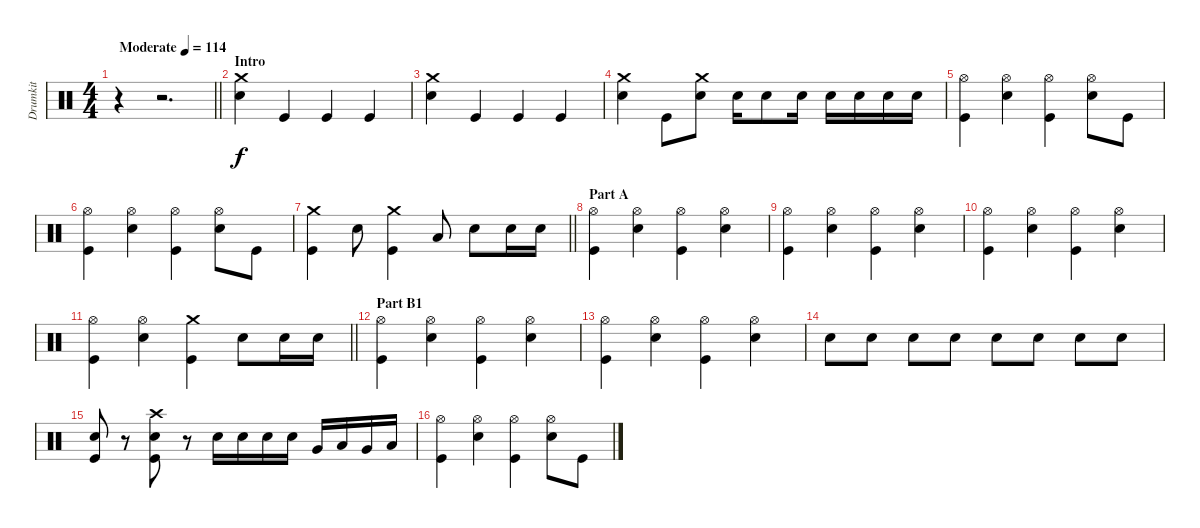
\track ("Drumkit" "Drumkit") {instrument percussion}
\staff {score}
\articulation defaults
\ts (4 4)
\tempo (114 "Moderate")
\clef neutral
\barLineRight lightlight
\ks c
r.4{dy f} r.2{d} |
\section ("" "Intro")
("Crash medium (hit)" "Snare (hit) 2").4 "Kick (hit)".4 "Kick (hit)".4 "Kick (hit)".4 |
("Crash medium (hit)" "Snare (hit) 2").4 "Kick (hit)".4 "Kick (hit)".4 "Kick (hit)".4 |
("Crash medium (hit)" "Snare (hit) 2").4 "Kick (hit)".8 ("Crash medium (hit)" "Snare (hit) 2").8 "Snare (hit) 2".16 "Snare (hit) 2".8 "Snare (hit) 2".16 "Snare (hit) 2".16 "Snare (hit) 2".16 "Snare (hit) 2".16 "Snare (hit) 2".16 |
("Hi-Hat (open)" "Kick (hit)").4 ("Hi-Hat (open)" "Snare (hit) 2").4 ("Hi-Hat (open)" "Kick (hit)").4 ("Hi-Hat (open)" "Snare (hit) 2").8 "Kick (hit)".8 |
("Hi-Hat (open)" "Kick (hit)").4 ("Hi-Hat (open)" "Snare (hit) 2").4 ("Hi-Hat (open)" "Kick (hit)").4 ("Hi-Hat (open)" "Snare (hit) 2").8 "Kick (hit)".8 |
\barLineRight lightlight
("Crash medium (hit)" "Kick (hit)").4 "Snare (hit) 2".8 ("Crash medium (hit)" "Kick (hit)").4 "Low Tom (hit)".8 "Snare (hit) 2".8 "Snare (hit) 2".16 "Snare (hit) 2".16 |
\section ("" "Part A")
("Hi-Hat (open)" "Kick (hit)").4 ("Hi-Hat (open)" "Snare (hit) 2").4 ("Hi-Hat (open)" "Kick (hit)").4 ("Hi-Hat (open)" "Snare (hit) 2").4 |
("Hi-Hat (open)" "Kick (hit)").4 ("Hi-Hat (open)" "Snare (hit) 2").4 ("Hi-Hat (open)" "Kick (hit)").4 ("Hi-Hat (open)" "Snare (hit) 2").4 |
("Hi-Hat (open)" "Kick (hit)").4 ("Hi-Hat (open)" "Snare (hit) 2").4 ("Hi-Hat (open)" "Kick (hit)").4 ("Hi-Hat (open)" "Snare (hit) 2").4 |
\barLineRight lightlight
("Hi-Hat (open)" "Kick (hit)").4 ("Hi-Hat (open)" "Snare (hit) 2").4 ("Crash medium (hit)" "Kick (hit)").4 "Snare (hit) 2".8 "Snare (hit) 2".16 "Snare (hit) 2".16 |
\section ("" "Part B1")
("Hi-Hat (open)" "Kick (hit)").4 ("Hi-Hat (open)" "Snare (hit) 2").4 ("Hi-Hat (open)" "Kick (hit)").4 ("Hi-Hat (open)" "Snare (hit) 2").4 |
("Hi-Hat (open)" "Kick (hit)").4 ("Hi-Hat (open)" "Snare (hit) 2").4 ("Hi-Hat (open)" "Kick (hit)").4 ("Hi-Hat (open)" "Snare (hit) 2").4 |
"Snare (hit) 2".8 "Snare (hit) 2".8 "Snare (hit) 2".8 "Snare (hit) 2".8 "Snare (hit) 2".8 "Snare (hit) 2".8 "Snare (hit) 2".8 "Snare (hit) 2".8 |
("Snare (hit) 2" "Kick (hit)").8 r.8 ("Crash high (hit)" "Snare (hit) 2" "Kick (hit)").8 r.8 "Snare (hit) 2".16 "Snare (hit) 2".16 "Snare (hit) 2".16 "Snare (hit) 2".16 "Very Low Tom (hit)".16 "Low Tom (hit)".16 "Very Low Tom (hit)".16 "Low Floor Tom (hit)".16 |
("Hi-Hat (open)" "Kick (hit)").4 ("Hi-Hat (open)" "Snare (hit) 2").4 ("Hi-Hat (open)" "Kick (hit)").4 ("Hi-Hat (open)" "Snare (hit) 2").8 "Kick (hit)".8
